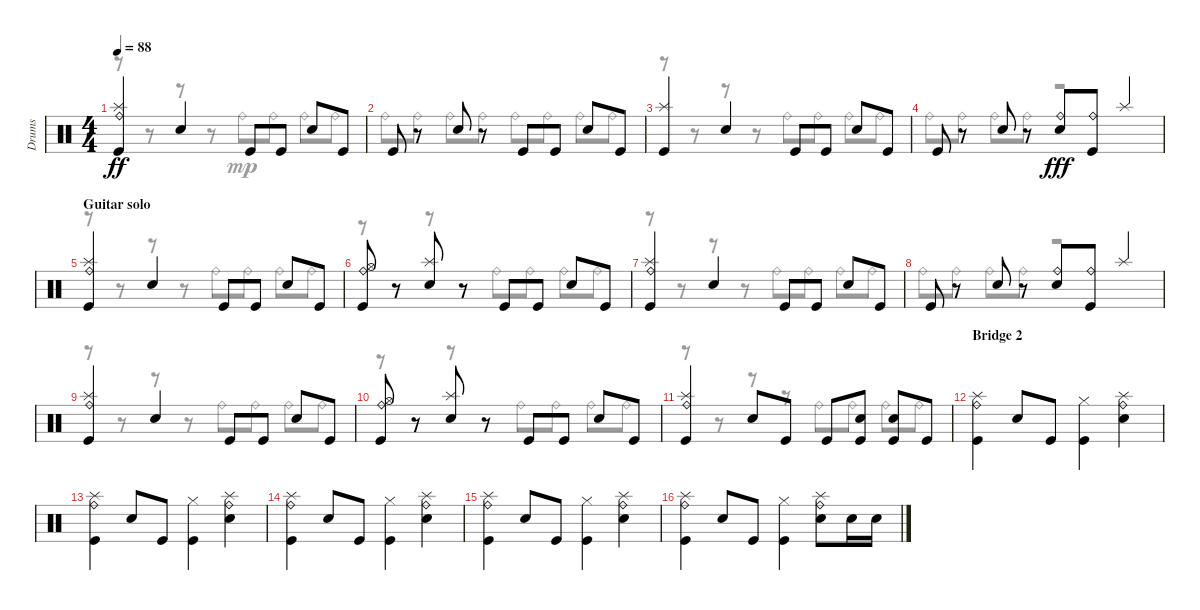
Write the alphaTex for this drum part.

\track ("Drums" "Drums") {instrument percussion}
\staff {score}
\articulation defaults
\voice
\ts (4 4)
\tempo 88
\clef neutral
\ks c
("Kick (hit)" "Splash (hit)" "Ride (bell)").4{dy ff} "Snare (hit) 2".4 "Kick (hit)".8 "Kick (hit)".8 "Snare (hit) 2".8 "Kick (hit)".8 |
"Kick (hit)".8 r.8 "Snare (hit) 2".8 r.8 "Kick (hit)".8 "Kick (hit)".8 "Snare (hit) 2".8 "Kick (hit)".8 |
("Kick (hit)" "Splash (hit)").4 "Snare (hit) 2".4 "Kick (hit)".8 "Kick (hit)".8 "Snare (hit) 2".8 "Kick (hit)".8 |
"Kick (hit)".8 r.8 "Snare (hit) 2".8 r.8 ("Snare (hit) 2" "Ride (bell)").8{dy fff} ("Kick (hit)" "Ride (bell)").8 "Splash (hit)".4 |
\section ("" "Guitar solo")
("Kick (hit)" "Splash (hit)" "Ride (bell)").4 "Snare (hit) 2".4 "Kick (hit)".8 "Kick (hit)".8 "Snare (hit) 2".8 "Kick (hit)".8 |
("Kick (hit)" "Hi-Hat (open)" "Ride (bell)").8 r.8 ("Snare (hit) 2" "Splash (hit)").8 r.8 "Kick (hit)".8 "Kick (hit)".8 "Snare (hit) 2".8 "Kick (hit)".8 |
("Kick (hit)" "Splash (hit)" "Ride (bell)").4 "Snare (hit) 2".4 "Kick (hit)".8 "Kick (hit)".8 "Snare (hit) 2".8 "Kick (hit)".8 |
"Kick (hit)".8 r.8 "Snare (hit) 2".8 r.8 ("Snare (hit) 2" "Ride (bell)").8 ("Kick (hit)" "Ride (bell)").8 "Splash (hit)".4 |
("Kick (hit)" "Splash (hit)" "Ride (bell)").4 "Snare (hit) 2".4 "Kick (hit)".8 "Kick (hit)".8 "Snare (hit) 2".8 "Kick (hit)".8 |
("Kick (hit)" "Hi-Hat (open)" "Ride (bell)").8 r.8 ("Snare (hit) 2" "Splash (hit)").8 r.8 "Kick (hit)".8 "Kick (hit)".8 "Snare (hit) 2".8 "Kick (hit)".8 |
("Kick (hit)" "Splash (hit)" "Ride (bell)").4 "Snare (hit) 2".8 "Kick (hit)".8 "Kick (hit)".8 ("Snare (hit) 2" "Kick (hit)").8 ("Kick (hit)" "Snare (hit) 2").8 "Kick (hit)".8 |
\section ("" "Bridge 2")
("Kick (hit)" "Splash (hit)" "Ride (bell)").4 "Snare (hit) 2".8 "Kick (hit)".8 ("Hi-Hat (closed)" "Kick (hit)").4 ("Ride (bell)" "Splash (hit)" "Snare (hit) 2").4 |
("Kick (hit)" "Splash (hit)" "Ride (bell)").4 "Snare (hit) 2".8 "Kick (hit)".8 ("Hi-Hat (closed)" "Kick (hit)").4 ("Ride (bell)" "Splash (hit)" "Snare (hit) 2").4 |
("Kick (hit)" "Splash (hit)" "Ride (bell)").4 "Snare (hit) 2".8 "Kick (hit)".8 ("Hi-Hat (closed)" "Kick (hit)").4 ("Ride (bell)" "Splash (hit)" "Snare (hit) 2").4 |
("Kick (hit)" "Splash (hit)" "Ride (bell)").4 "Snare (hit) 2".8 "Kick (hit)".8 ("Hi-Hat (closed)" "Kick (hit)").4 ("Ride (bell)" "Splash (hit)" "Snare (hit) 2").4 |
("Kick (hit)" "Splash (hit)" "Ride (bell)").4 "Snare (hit) 2".8 "Kick (hit)".8 ("Hi-Hat (closed)" "Kick (hit)").4 ("Ride (bell)" "Splash (hit)" "Snare (hit) 2").8 "Snare (hit) 2".16 "Snare (hit) 2".16
\voice
\clef neutral
\ottava regular
\simile none
\ks c
r.8{dy mp} r.8 r.8 r.8 "Ride (bell)".8 "Ride (bell)".8 "Ride (bell)".8 "Ride (bell)".8 |
"Ride (bell)".8 "Ride (bell)".8 "Ride (bell)".8 "Ride (bell)".8 "Ride (bell)".8 "Ride (bell)".8 "Ride (bell)".8 "Ride (bell)".8 |
r.8 r.8 r.8 r.8 "Ride (bell)".8 "Ride (bell)".8 "Ride (bell)".8 "Ride (bell)".8 |
"Ride (bell)".8 "Ride (bell)".8 "Ride (bell)".8 "Ride (bell)".8 r.2 |
r.8 r.8 r.8 r.8 "Ride (bell)".8 "Ride (bell)".8 "Ride (bell)".8 "Ride (bell)".8 |
r.8 r.8 r.8 r.8 "Ride (bell)".8 "Ride (bell)".8 "Ride (bell)".8 "Ride (bell)".8 |
r.8 r.8 r.8 r.8 "Ride (bell)".8 "Ride (bell)".8 "Ride (bell)".8 "Ride (bell)".8 |
"Ride (bell)".8 "Ride (bell)".8 "Ride (bell)".8 "Ride (bell)".8 r.2 |
r.8 r.8 r.8 r.8 "Ride (bell)".8 "Ride (bell)".8 "Ride (bell)".8 "Ride (bell)".8 |
r.8 r.8 r.8 r.8 "Ride (bell)".8 "Ride (bell)".8 "Ride (bell)".8 "Ride (bell)".8 |
r.8 r.8 r.8 r.8 "Ride (bell)".8 "Ride (bell)".8 "Ride (bell)".8 "Ride (bell)".8 |
|
|
|
|
